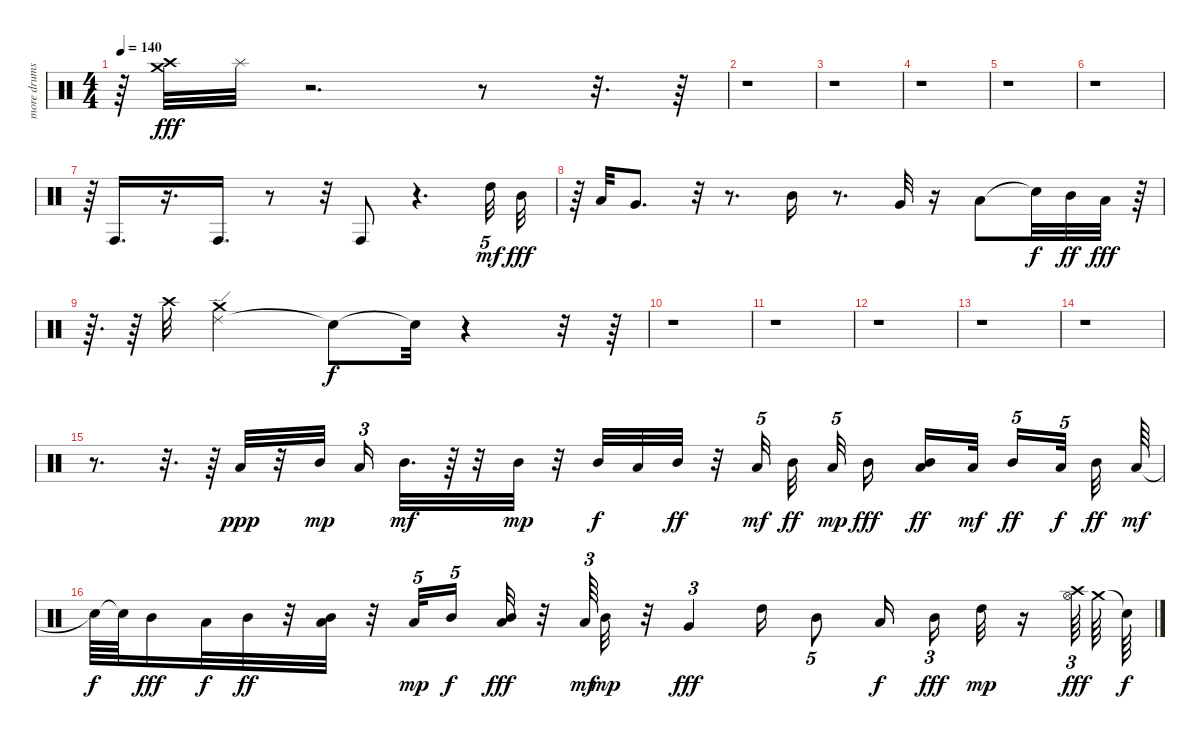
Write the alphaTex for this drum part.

\track ("more drums" "more drums") {instrument percussion}
\staff {score}
\articulation defaults
\ts (4 4)
\tempo 140
\clef neutral
\ks c
r.64{dy mf} ("Crash high (hit)" "Crash medium (hit)").32{dy fff} "Splash (hit)".32 r.2{d} r.8 r.32{d} r.64 |
r.1 |
r.1 |
r.1 |
r.1 |
r.1 |
r.64 "Conga high (hit)".16{d} r.16{d} "Conga high (hit)".16{d} r.8 r.32 "Conga high (hit)".8 r.4{d} "High Tom (hit)".32{tu (5 4) dy mf} "Mid Tom (hit)".32{dy fff} |
r.64 "Low Tom (hit)".32 "Very Low Tom (hit)".8{d} r.32{tu (5 4)} r.8{d} "Mid Tom (hit)".16 r.8{d} "Very Low Tom (hit)".32 r.16 "Low Tom (hit)".8 "Snare (hit)"{t}.32{dy f} "Mid Tom (hit)".32{dy ff} "Low Tom (hit)".32{dy fff} r.64 |
r.64{d} r.64 "Crash high (hit)".32 ("Ride (edge) 2" "Crash medium (hit)").2 "Snare (hit)"{t}.8{dy f} "Snare (hit)"{t}.32 r.4 r.32 r.64 |
r.1 |
r.1 |
r.1 |
r.1 |
r.1 |
r.8{d} r.32{d} r.64 "Low Tom (hit)".32{dy ppp} r.32 "Mid Tom (hit)".32{dy mp beam splitsecondary} "Low Tom (hit)".16{tu (3 2)} "Mid Tom (hit)".32{d dy mf} r.64 r.32 "Mid Tom (hit)".32{dy mp} r.32 "Mid Tom (hit)".32{dy f} "Low Tom (hit)".32 "Mid Tom (hit)".32{dy ff} r.32 "Low Tom (hit)".32{tu (5 4) dy mf beam splitsecondary} "Mid Tom (hit)".32{dy ff beam splitsecondary} "Low Tom (hit)".32{tu (5 4) dy mp} "Mid Tom (hit)".16{dy fff} ("Low Tom (hit)" "Mid Tom (hit)").16{dy ff} "Low Tom (hit)".32{dy mf beam splitsecondary} "Mid Tom (hit)".16{tu (5 4) dy ff} "Low Tom (hit)".32{tu (5 4) dy f} "Mid Tom (hit)".32{dy ff} "Low Tom (hit)".64{dy mf} |
"Snare (hit)"{t}.64{dy f} "Snare (hit)"{t}.64 "Mid Tom (hit)".16{dy fff} "Low Tom (hit)".32{dy f} "Mid Tom (hit)".32{dy ff} r.32 ("Low Tom (hit)" "Mid Tom (hit)").32 r.32 "Low Tom (hit)".32{tu (5 4) dy mp} "Mid Tom (hit)".16{tu (5 4) dy f beam splitsecondary} ("Low Tom (hit)" "Mid Tom (hit)").32{dy fff} r.32 "Low Tom (hit)".64{tu (3 2) dy mf} "Mid Tom (hit)".32{dy mp} r.32 "Very Low Tom (hit)".4{tu (3 2) dy fff} "High Tom (hit)".16 "Mid Tom (hit)".8{tu (5 4)} "Low Tom (hit)".16{dy f beam splitsecondary} "Mid Tom (hit)".16{tu (3 2) dy fff} "High Tom (hit)".32{dy mp} r.16 ("Crash high (hit)" "Hi-Hat (open)").64{tu (3 2) dy fff} "Crash medium (hit)".64 "Snare (hit)"{t}.64{dy f}
